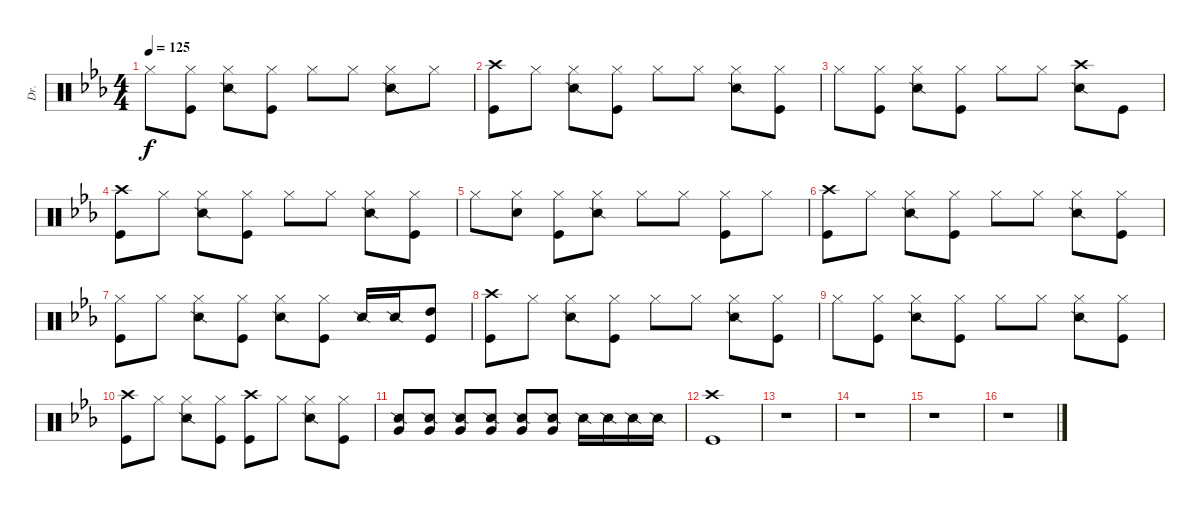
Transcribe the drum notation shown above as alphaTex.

\track ("Dr." "Dr.") {instrument percussion}
\staff {score}
\articulation defaults
\ts (4 4)
\tempo 125
\clef neutral
\ks eb "Hi-Hat (closed)".8{dy f}
("Hi-Hat (closed)" "Kick (hit)").8 ("Hi-Hat (closed)" "Snare (side stick) 2").8 ("Hi-Hat (closed)" "Kick (hit)").8 "Hi-Hat (closed)".8 "Hi-Hat (closed)".8 ("Hi-Hat (closed)" "Snare (side stick) 2").8 "Hi-Hat (closed)".8 |
("Crash high (hit)" "Kick (hit)").8 "Hi-Hat (closed)".8 ("Hi-Hat (closed)" "Snare (side stick) 2").8 ("Hi-Hat (closed)" "Kick (hit)").8 "Hi-Hat (closed)".8 "Hi-Hat (closed)".8 ("Hi-Hat (closed)" "Snare (side stick) 2").8 ("Hi-Hat (closed)" "Kick (hit)").8 |
"Hi-Hat (closed)".8 ("Hi-Hat (closed)" "Kick (hit)").8 ("Hi-Hat (closed)" "Snare (side stick) 2").8 ("Hi-Hat (closed)" "Kick (hit)").8 "Hi-Hat (closed)".8 "Hi-Hat (closed)".8 ("Crash high (hit)" "Snare (side stick) 2").8 "Kick (hit)".8 |
("Crash high (hit)" "Kick (hit)").8 "Hi-Hat (closed)".8 ("Hi-Hat (closed)" "Snare (side stick) 2").8 ("Hi-Hat (closed)" "Kick (hit)").8 "Hi-Hat (closed)".8 "Hi-Hat (closed)".8 ("Hi-Hat (closed)" "Snare (side stick) 2").8 ("Hi-Hat (closed)" "Kick (hit)").8 |
"Hi-Hat (closed)".8 ("Hi-Hat (closed)" "Snare (hit)").8 ("Hi-Hat (closed)" "Kick (hit)").8 ("Hi-Hat (closed)" "Snare (side stick) 2").8 "Hi-Hat (closed)".8 "Hi-Hat (closed)".8 ("Hi-Hat (closed)" "Kick (hit)").8 "Hi-Hat (closed)".8 |
("Crash high (hit)" "Kick (hit)").8 "Hi-Hat (closed)".8 ("Hi-Hat (closed)" "Snare (side stick) 2").8 ("Hi-Hat (closed)" "Kick (hit)").8 "Hi-Hat (closed)".8 "Hi-Hat (closed)".8 ("Hi-Hat (closed)" "Snare (side stick) 2").8 ("Hi-Hat (closed)" "Kick (hit)").8 |
("Hi-Hat (closed)" "Kick (hit)").8 "Hi-Hat (closed)".8 ("Hi-Hat (closed)" "Snare (side stick) 2").8 ("Hi-Hat (closed)" "Kick (hit)").8 ("Hi-Hat (closed)" "Snare (side stick) 2").8 ("Hi-Hat (closed)" "Kick (hit)").8 "Snare (side stick) 2".16 "Snare (side stick) 2".16 ("High Tom (hit)" "Kick (hit)").8 |
("Crash high (hit)" "Kick (hit)").8 "Hi-Hat (closed)".8 ("Hi-Hat (closed)" "Snare (side stick) 2").8 ("Hi-Hat (closed)" "Kick (hit)").8 "Hi-Hat (closed)".8 "Hi-Hat (closed)".8 ("Hi-Hat (closed)" "Snare (side stick) 2").8 ("Hi-Hat (closed)" "Kick (hit)").8 |
"Hi-Hat (closed)".8 ("Hi-Hat (closed)" "Kick (hit)").8 ("Hi-Hat (closed)" "Snare (side stick) 2").8 ("Hi-Hat (closed)" "Kick (hit)").8 "Hi-Hat (closed)".8 "Hi-Hat (closed)".8 ("Hi-Hat (closed)" "Snare (side stick) 2").8 ("Hi-Hat (closed)" "Kick (hit)").8 |
("Crash high (hit)" "Kick (hit)").8 "Hi-Hat (closed)".8 ("Hi-Hat (closed)" "Snare (side stick) 2").8 ("Hi-Hat (closed)" "Kick (hit)").8 ("Crash high (hit)" "Kick (hit)").8 "Hi-Hat (closed)".8 ("Hi-Hat (closed)" "Snare (side stick) 2").8 ("Hi-Hat (closed)" "Kick (hit)").8 |
("Snare (side stick) 2" "Very Low Tom (hit)").8 ("Snare (side stick) 2" "Very Low Tom (hit)").8 ("Snare (side stick) 2" "Very Low Tom (hit)").8 ("Snare (side stick) 2" "Very Low Tom (hit)").8 ("Snare (side stick) 2" "Very Low Tom (hit)").8 ("Snare (side stick) 2" "Very Low Tom (hit)").8 "Snare (side stick) 2".16 "Snare (side stick) 2".16 "Snare (side stick) 2".16 "Snare (side stick) 2".16 |
("Crash high (hit)" "Kick (hit)").1 |
r.1 |
r.1 |
r.1 |
r.1
